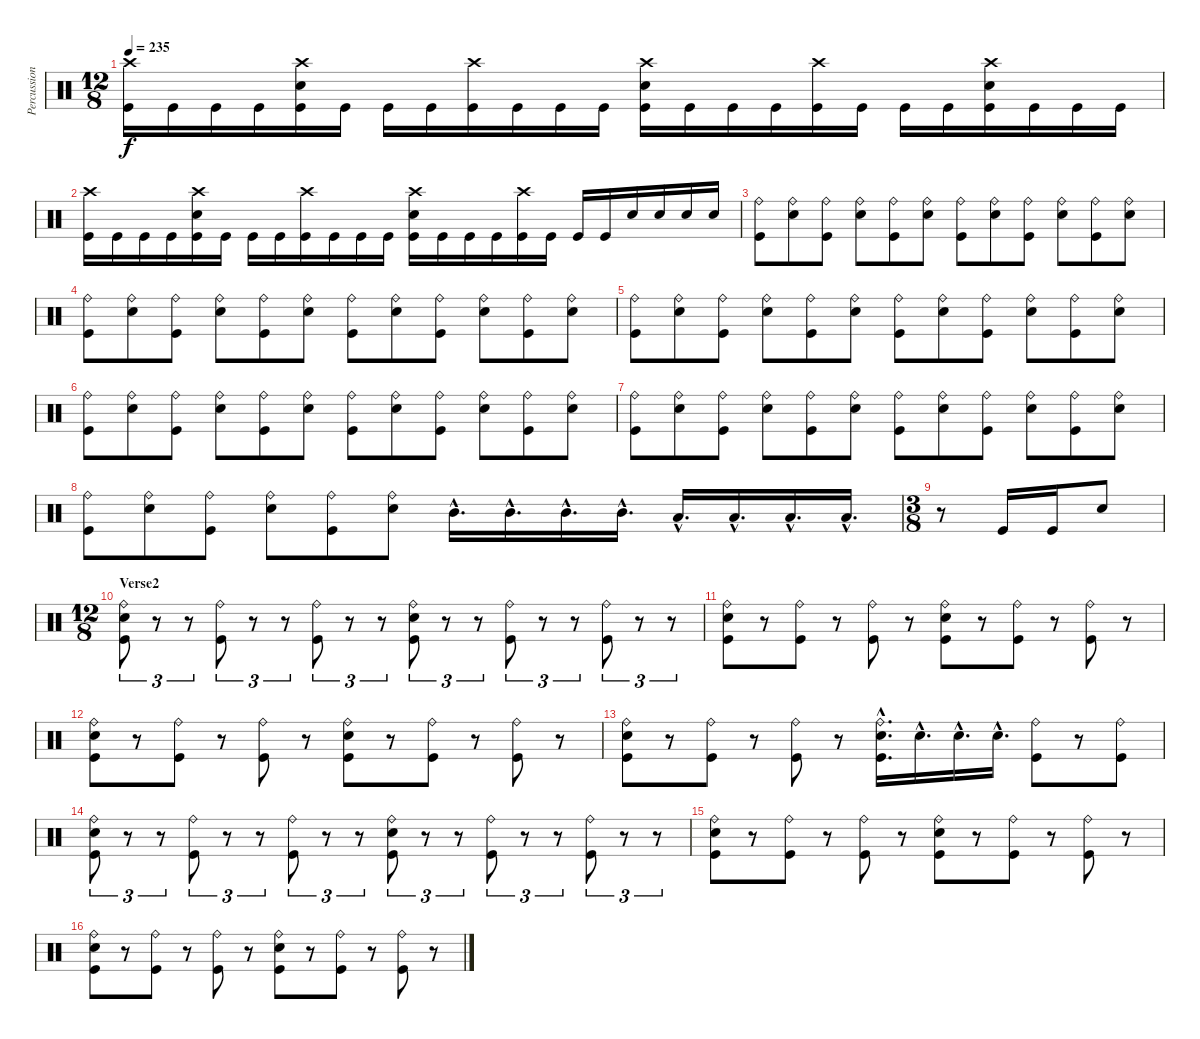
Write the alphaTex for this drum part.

\track ("Percussion" "Percussion") {instrument percussion}
\staff {score}
\articulation defaults
\ts (12 8)
\tempo 235
\clef neutral
\ks c
("Crash high (hit)" "Kick (hit)").16{dy f} "Kick (hit)".16 "Kick (hit)".16 "Kick (hit)".16 ("Crash high (hit)" "Snare (hit) 2" "Kick (hit)").16 "Kick (hit)".16 "Kick (hit)".16 "Kick (hit)".16 ("Crash high (hit)" "Kick (hit)").16 "Kick (hit)".16 "Kick (hit)".16 "Kick (hit)".16 ("Crash high (hit)" "Snare (hit) 2" "Kick (hit)").16 "Kick (hit)".16 "Kick (hit)".16 "Kick (hit)".16 ("Crash high (hit)" "Kick (hit)").16 "Kick (hit)".16 "Kick (hit)".16 "Kick (hit)".16 ("Crash high (hit)" "Snare (hit) 2" "Kick (hit)").16 "Kick (hit)".16 "Kick (hit)".16 "Kick (hit)".16 |
("Crash high (hit)" "Kick (hit)").16 "Kick (hit)".16 "Kick (hit)".16 "Kick (hit)".16 ("Crash high (hit)" "Snare (hit) 2" "Kick (hit)").16 "Kick (hit)".16 "Kick (hit)".16 "Kick (hit)".16 ("Crash high (hit)" "Kick (hit)").16 "Kick (hit)".16 "Kick (hit)".16 "Kick (hit)".16 ("Crash high (hit)" "Snare (hit) 2" "Kick (hit)").16 "Kick (hit)".16 "Kick (hit)".16 "Kick (hit)".16 ("Crash high (hit)" "Kick (hit)").16 "Kick (hit)".16 "Kick (hit)".16 "Kick (hit)".16 "Snare (hit) 2".16 "Snare (hit) 2".16 "Snare (hit) 2".16 "Snare (hit) 2".16 |
("Ride (bell)" "Kick (hit)").8 ("Ride (bell)" "Snare (hit) 2").8 ("Ride (bell)" "Kick (hit)").8 ("Ride (bell)" "Snare (hit) 2").8 ("Ride (bell)" "Kick (hit)").8 ("Ride (bell)" "Snare (hit) 2").8 ("Ride (bell)" "Kick (hit)").8 ("Ride (bell)" "Snare (hit) 2").8 ("Ride (bell)" "Kick (hit)").8 ("Ride (bell)" "Snare (hit) 2").8 ("Ride (bell)" "Kick (hit)").8 ("Ride (bell)" "Snare (hit) 2").8 |
("Ride (bell)" "Kick (hit)").8 ("Ride (bell)" "Snare (hit) 2").8 ("Ride (bell)" "Kick (hit)").8 ("Ride (bell)" "Snare (hit) 2").8 ("Ride (bell)" "Kick (hit)").8 ("Ride (bell)" "Snare (hit) 2").8 ("Ride (bell)" "Kick (hit)").8 ("Ride (bell)" "Snare (hit) 2").8 ("Ride (bell)" "Kick (hit)").8 ("Ride (bell)" "Snare (hit) 2").8 ("Ride (bell)" "Kick (hit)").8 ("Ride (bell)" "Snare (hit) 2").8 |
("Ride (bell)" "Kick (hit)").8 ("Ride (bell)" "Snare (hit) 2").8 ("Ride (bell)" "Kick (hit)").8 ("Ride (bell)" "Snare (hit) 2").8 ("Ride (bell)" "Kick (hit)").8 ("Ride (bell)" "Snare (hit) 2").8 ("Ride (bell)" "Kick (hit)").8 ("Ride (bell)" "Snare (hit) 2").8 ("Ride (bell)" "Kick (hit)").8 ("Ride (bell)" "Snare (hit) 2").8 ("Ride (bell)" "Kick (hit)").8 ("Ride (bell)" "Snare (hit) 2").8 |
("Ride (bell)" "Kick (hit)").8 ("Ride (bell)" "Snare (hit) 2").8 ("Ride (bell)" "Kick (hit)").8 ("Ride (bell)" "Snare (hit) 2").8 ("Ride (bell)" "Kick (hit)").8 ("Ride (bell)" "Snare (hit) 2").8 ("Ride (bell)" "Kick (hit)").8 ("Ride (bell)" "Snare (hit) 2").8 ("Ride (bell)" "Kick (hit)").8 ("Ride (bell)" "Snare (hit) 2").8 ("Ride (bell)" "Kick (hit)").8 ("Ride (bell)" "Snare (hit) 2").8 |
("Ride (bell)" "Kick (hit)").8 ("Ride (bell)" "Snare (hit) 2").8 ("Ride (bell)" "Kick (hit)").8 ("Ride (bell)" "Snare (hit) 2").8 ("Ride (bell)" "Kick (hit)").8 ("Ride (bell)" "Snare (hit) 2").8 ("Ride (bell)" "Kick (hit)").8 ("Ride (bell)" "Snare (hit) 2").8 ("Ride (bell)" "Kick (hit)").8 ("Ride (bell)" "Snare (hit) 2").8 ("Ride (bell)" "Kick (hit)").8 ("Ride (bell)" "Snare (hit) 2").8 |
("Ride (bell)" "Kick (hit)").8 ("Ride (bell)" "Snare (hit) 2").8 ("Ride (bell)" "Kick (hit)").8 ("Ride (bell)" "Snare (hit) 2").8 ("Ride (bell)" "Kick (hit)").8 ("Ride (bell)" "Snare (hit) 2").8 "Mid Tom (hit)"{hac}.16{d} "Mid Tom (hit)"{hac}.16{d} "Mid Tom (hit)"{hac}.16{d} "Mid Tom (hit)"{hac}.16{d} "Low Tom (hit)"{hac}.16{d} "Low Tom (hit)"{hac}.16{d} "Low Tom (hit)"{hac}.16{d} "Low Tom (hit)"{hac}.16{d} |
\ts (3 8)
r.8 "Kick (hit)".16 "Kick (hit)".16 "Snare (hit) 2".8 |
\ts (12 8)
\section ("" "Verse2")
("Ride (bell)" "Snare (hit) 2" "Kick (hit)").8{tu (3 2)} r.8{tu (3 2)} r.8{tu (3 2)} ("Ride (bell)" "Kick (hit)").8{tu (3 2)} r.8{tu (3 2)} r.8{tu (3 2)} ("Ride (bell)" "Kick (hit)").8{tu (3 2)} r.8{tu (3 2)} r.8{tu (3 2)} ("Ride (bell)" "Snare (hit) 2" "Kick (hit)").8{tu (3 2)} r.8{tu (3 2)} r.8{tu (3 2)} ("Ride (bell)" "Kick (hit)").8{tu (3 2)} r.8{tu (3 2)} r.8{tu (3 2)} ("Ride (bell)" "Kick (hit)").8{tu (3 2)} r.8{tu (3 2)} r.8{tu (3 2)} |
("Ride (bell)" "Snare (hit) 2" "Kick (hit)").8 r.8 ("Ride (bell)" "Kick (hit)").8 r.8 ("Ride (bell)" "Kick (hit)").8 r.8 ("Ride (bell)" "Snare (hit) 2" "Kick (hit)").8 r.8 ("Ride (bell)" "Kick (hit)").8 r.8 ("Ride (bell)" "Kick (hit)").8 r.8 |
("Ride (bell)" "Snare (hit) 2" "Kick (hit)").8 r.8 ("Ride (bell)" "Kick (hit)").8 r.8 ("Ride (bell)" "Kick (hit)").8 r.8 ("Ride (bell)" "Snare (hit) 2" "Kick (hit)").8 r.8 ("Ride (bell)" "Kick (hit)").8 r.8 ("Ride (bell)" "Kick (hit)").8 r.8 |
("Ride (bell)" "Snare (hit) 2" "Kick (hit)").8 r.8 ("Ride (bell)" "Kick (hit)").8 r.8 ("Ride (bell)" "Kick (hit)").8 r.8 ("Ride (bell)"{hac} "Snare (hit) 2"{hac} "Kick (hit)"{hac}).16{d} "Snare (hit) 2"{hac}.16{d} "Snare (hit) 2"{hac}.16{d} "Snare (hit) 2"{hac}.16{d} ("Ride (bell)" "Kick (hit)").8 r.8 ("Ride (bell)" "Kick (hit)").8 |
("Ride (bell)" "Snare (hit) 2" "Kick (hit)").8{tu (3 2)} r.8{tu (3 2)} r.8{tu (3 2)} ("Ride (bell)" "Kick (hit)").8{tu (3 2)} r.8{tu (3 2)} r.8{tu (3 2)} ("Ride (bell)" "Kick (hit)").8{tu (3 2)} r.8{tu (3 2)} r.8{tu (3 2)} ("Ride (bell)" "Snare (hit) 2" "Kick (hit)").8{tu (3 2)} r.8{tu (3 2)} r.8{tu (3 2)} ("Ride (bell)" "Kick (hit)").8{tu (3 2)} r.8{tu (3 2)} r.8{tu (3 2)} ("Ride (bell)" "Kick (hit)").8{tu (3 2)} r.8{tu (3 2)} r.8{tu (3 2)} |
("Ride (bell)" "Snare (hit) 2" "Kick (hit)").8 r.8 ("Ride (bell)" "Kick (hit)").8 r.8 ("Ride (bell)" "Kick (hit)").8 r.8 ("Ride (bell)" "Snare (hit) 2" "Kick (hit)").8 r.8 ("Ride (bell)" "Kick (hit)").8 r.8 ("Ride (bell)" "Kick (hit)").8 r.8 |
("Ride (bell)" "Snare (hit) 2" "Kick (hit)").8 r.8 ("Ride (bell)" "Kick (hit)").8 r.8 ("Ride (bell)" "Kick (hit)").8 r.8 ("Ride (bell)" "Snare (hit) 2" "Kick (hit)").8 r.8 ("Ride (bell)" "Kick (hit)").8 r.8 ("Ride (bell)" "Kick (hit)").8 r.8
